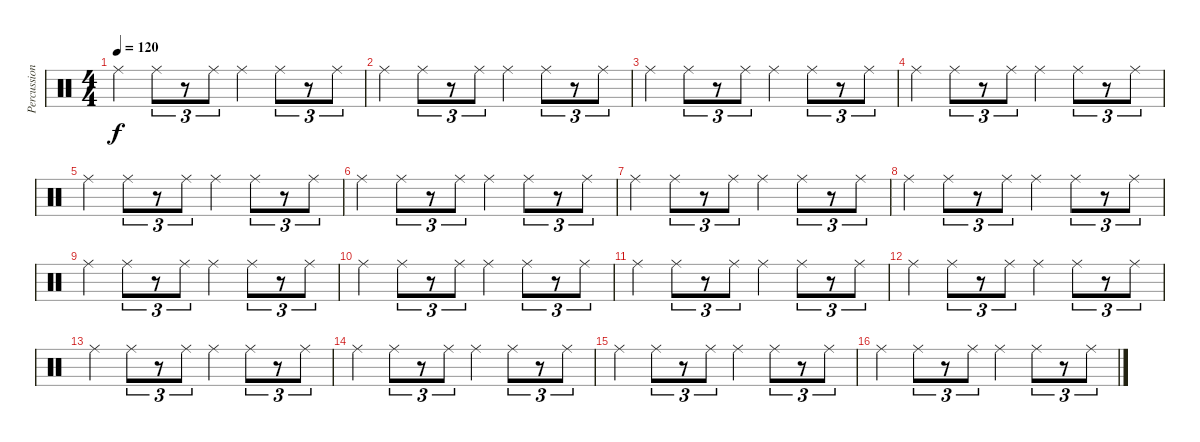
\track ("Percussions cymbals" "Percussion") {instrument percussion}
\staff {score}
\articulation defaults
\ts (4 4)
\tempo 120
\clef neutral
\ks c "Ride (middle)".4{dy f} "Ride (middle)".8{tu (3 2)}
r.8{tu (3 2)} "Ride (middle)".8{tu (3 2)} "Ride (middle)".4 "Ride (middle)".8{tu (3 2)} r.8{tu (3 2)} "Ride (middle)".8{tu (3 2)} |
"Ride (middle)".4 "Ride (middle)".8{tu (3 2)} r.8{tu (3 2)} "Ride (middle)".8{tu (3 2)} "Ride (middle)".4 "Ride (middle)".8{tu (3 2)} r.8{tu (3 2)} "Ride (middle)".8{tu (3 2)} |
"Ride (middle)".4 "Ride (middle)".8{tu (3 2)} r.8{tu (3 2)} "Ride (middle)".8{tu (3 2)} "Ride (middle)".4 "Ride (middle)".8{tu (3 2)} r.8{tu (3 2)} "Ride (middle)".8{tu (3 2)} |
"Ride (middle)".4 "Ride (middle)".8{tu (3 2)} r.8{tu (3 2)} "Ride (middle)".8{tu (3 2)} "Ride (middle)".4 "Ride (middle)".8{tu (3 2)} r.8{tu (3 2)} "Ride (middle)".8{tu (3 2)} |
"Ride (middle)".4 "Ride (middle)".8{tu (3 2)} r.8{tu (3 2)} "Ride (middle)".8{tu (3 2)} "Ride (middle)".4 "Ride (middle)".8{tu (3 2)} r.8{tu (3 2)} "Ride (middle)".8{tu (3 2)} |
"Ride (middle)".4 "Ride (middle)".8{tu (3 2)} r.8{tu (3 2)} "Ride (middle)".8{tu (3 2)} "Ride (middle)".4 "Ride (middle)".8{tu (3 2)} r.8{tu (3 2)} "Ride (middle)".8{tu (3 2)} |
"Ride (middle)".4 "Ride (middle)".8{tu (3 2)} r.8{tu (3 2)} "Ride (middle)".8{tu (3 2)} "Ride (middle)".4 "Ride (middle)".8{tu (3 2)} r.8{tu (3 2)} "Ride (middle)".8{tu (3 2)} |
"Ride (middle)".4 "Ride (middle)".8{tu (3 2)} r.8{tu (3 2)} "Ride (middle)".8{tu (3 2)} "Ride (middle)".4 "Ride (middle)".8{tu (3 2)} r.8{tu (3 2)} "Ride (middle)".8{tu (3 2)} |
"Ride (middle)".4 "Ride (middle)".8{tu (3 2)} r.8{tu (3 2)} "Ride (middle)".8{tu (3 2)} "Ride (middle)".4 "Ride (middle)".8{tu (3 2)} r.8{tu (3 2)} "Ride (middle)".8{tu (3 2)} |
"Ride (middle)".4 "Ride (middle)".8{tu (3 2)} r.8{tu (3 2)} "Ride (middle)".8{tu (3 2)} "Ride (middle)".4 "Ride (middle)".8{tu (3 2)} r.8{tu (3 2)} "Ride (middle)".8{tu (3 2)} |
"Ride (middle)".4 "Ride (middle)".8{tu (3 2)} r.8{tu (3 2)} "Ride (middle)".8{tu (3 2)} "Ride (middle)".4 "Ride (middle)".8{tu (3 2)} r.8{tu (3 2)} "Ride (middle)".8{tu (3 2)} |
"Ride (middle)".4 "Ride (middle)".8{tu (3 2)} r.8{tu (3 2)} "Ride (middle)".8{tu (3 2)} "Ride (middle)".4 "Ride (middle)".8{tu (3 2)} r.8{tu (3 2)} "Ride (middle)".8{tu (3 2)} |
"Ride (middle)".4 "Ride (middle)".8{tu (3 2)} r.8{tu (3 2)} "Ride (middle)".8{tu (3 2)} "Ride (middle)".4 "Ride (middle)".8{tu (3 2)} r.8{tu (3 2)} "Ride (middle)".8{tu (3 2)} |
"Ride (middle)".4 "Ride (middle)".8{tu (3 2)} r.8{tu (3 2)} "Ride (middle)".8{tu (3 2)} "Ride (middle)".4 "Ride (middle)".8{tu (3 2)} r.8{tu (3 2)} "Ride (middle)".8{tu (3 2)} |
"Ride (middle)".4 "Ride (middle)".8{tu (3 2)} r.8{tu (3 2)} "Ride (middle)".8{tu (3 2)} "Ride (middle)".4 "Ride (middle)".8{tu (3 2)} r.8{tu (3 2)} "Ride (middle)".8{tu (3 2)} |
"Ride (middle)".4 "Ride (middle)".8{tu (3 2)} r.8{tu (3 2)} "Ride (middle)".8{tu (3 2)} "Ride (middle)".4 "Ride (middle)".8{tu (3 2)} r.8{tu (3 2)} "Ride (middle)".8{tu (3 2)}
